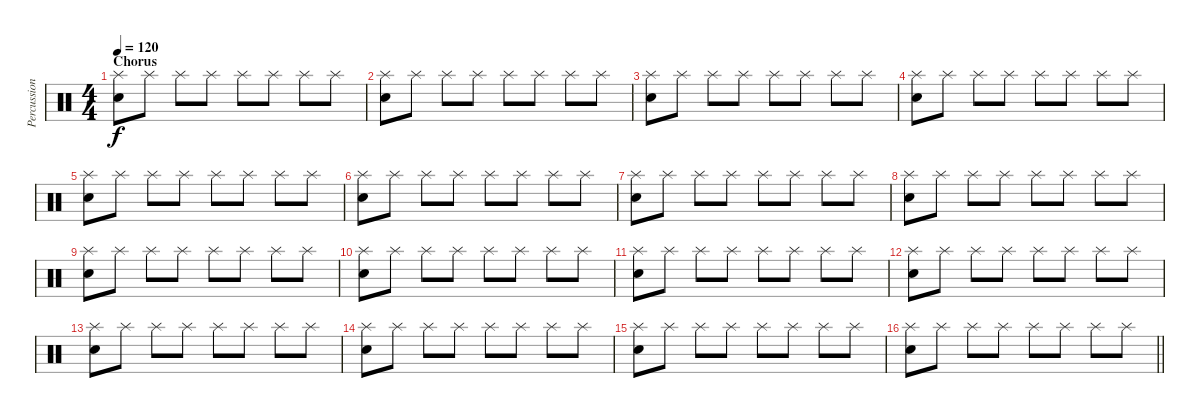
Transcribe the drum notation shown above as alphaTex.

\track ("Percussion" "Percussion") {instrument percussion}
\staff {score}
\articulation defaults
\ts (4 4)
\section ("" "Chorus")
\tempo 120
\clef neutral
\ks c
("Splash (hit)" "Snare (hit) 2").8{dy f} "Splash (hit)".8 "Splash (hit)".8 "Splash (hit)".8 "Splash (hit)".8 "Splash (hit)".8 "Splash (hit)".8 "Splash (hit)".8 |
("Splash (hit)" "Snare (hit) 2").8 "Splash (hit)".8 "Splash (hit)".8 "Splash (hit)".8 "Splash (hit)".8 "Splash (hit)".8 "Splash (hit)".8 "Splash (hit)".8 |
("Splash (hit)" "Snare (hit) 2").8 "Splash (hit)".8 "Splash (hit)".8 "Splash (hit)".8 "Splash (hit)".8 "Splash (hit)".8 "Splash (hit)".8 "Splash (hit)".8 |
("Splash (hit)" "Snare (hit) 2").8 "Splash (hit)".8 "Splash (hit)".8 "Splash (hit)".8 "Splash (hit)".8 "Splash (hit)".8 "Splash (hit)".8 "Splash (hit)".8 |
("Splash (hit)" "Snare (hit) 2").8 "Splash (hit)".8 "Splash (hit)".8 "Splash (hit)".8 "Splash (hit)".8 "Splash (hit)".8 "Splash (hit)".8 "Splash (hit)".8 |
("Splash (hit)" "Snare (hit) 2").8 "Splash (hit)".8 "Splash (hit)".8 "Splash (hit)".8 "Splash (hit)".8 "Splash (hit)".8 "Splash (hit)".8 "Splash (hit)".8 |
("Splash (hit)" "Snare (hit) 2").8 "Splash (hit)".8 "Splash (hit)".8 "Splash (hit)".8 "Splash (hit)".8 "Splash (hit)".8 "Splash (hit)".8 "Splash (hit)".8 |
("Splash (hit)" "Snare (hit) 2").8 "Splash (hit)".8 "Splash (hit)".8 "Splash (hit)".8 "Splash (hit)".8 "Splash (hit)".8 "Splash (hit)".8 "Splash (hit)".8 |
("Splash (hit)" "Snare (hit) 2").8 "Splash (hit)".8 "Splash (hit)".8 "Splash (hit)".8 "Splash (hit)".8 "Splash (hit)".8 "Splash (hit)".8 "Splash (hit)".8 |
("Splash (hit)" "Snare (hit) 2").8 "Splash (hit)".8 "Splash (hit)".8 "Splash (hit)".8 "Splash (hit)".8 "Splash (hit)".8 "Splash (hit)".8 "Splash (hit)".8 |
("Splash (hit)" "Snare (hit) 2").8 "Splash (hit)".8 "Splash (hit)".8 "Splash (hit)".8 "Splash (hit)".8 "Splash (hit)".8 "Splash (hit)".8 "Splash (hit)".8 |
("Splash (hit)" "Snare (hit) 2").8 "Splash (hit)".8 "Splash (hit)".8 "Splash (hit)".8 "Splash (hit)".8 "Splash (hit)".8 "Splash (hit)".8 "Splash (hit)".8 |
("Splash (hit)" "Snare (hit) 2").8 "Splash (hit)".8 "Splash (hit)".8 "Splash (hit)".8 "Splash (hit)".8 "Splash (hit)".8 "Splash (hit)".8 "Splash (hit)".8 |
("Splash (hit)" "Snare (hit) 2").8 "Splash (hit)".8 "Splash (hit)".8 "Splash (hit)".8 "Splash (hit)".8 "Splash (hit)".8 "Splash (hit)".8 "Splash (hit)".8 |
("Splash (hit)" "Snare (hit) 2").8 "Splash (hit)".8 "Splash (hit)".8 "Splash (hit)".8 "Splash (hit)".8 "Splash (hit)".8 "Splash (hit)".8 "Splash (hit)".8 |
\barLineRight lightlight
("Splash (hit)" "Snare (hit) 2").8 "Splash (hit)".8 "Splash (hit)".8 "Splash (hit)".8 "Splash (hit)".8 "Splash (hit)".8 "Splash (hit)".8 "Splash (hit)".8
